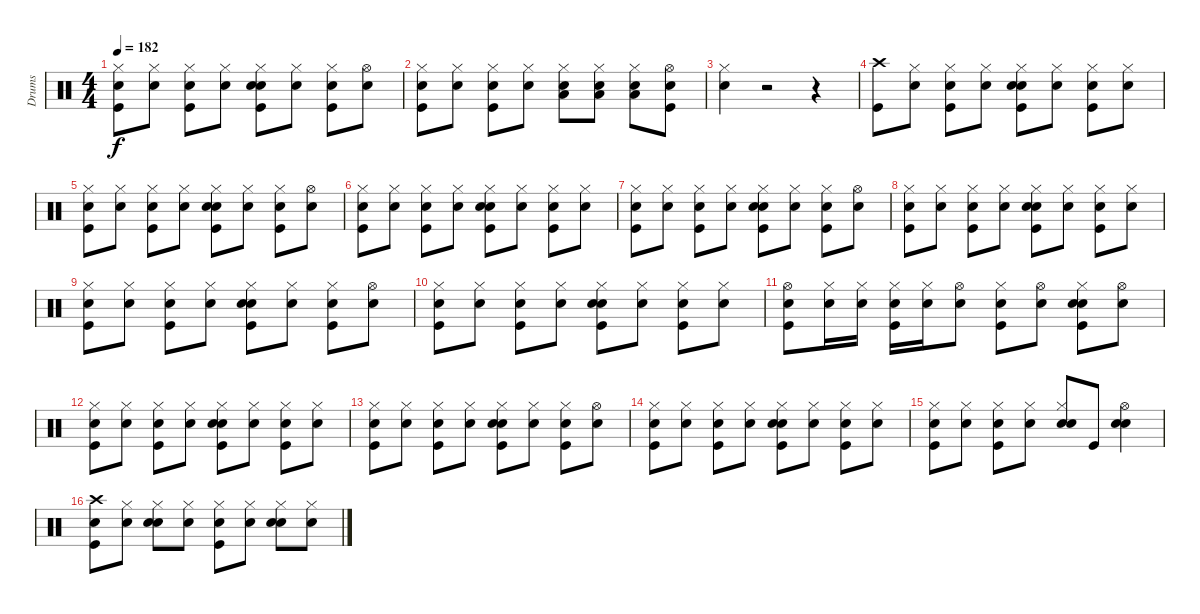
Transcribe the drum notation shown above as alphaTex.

\track ("Drums" "Drums") {instrument percussion}
\staff {score}
\articulation defaults
\ts (4 4)
\tempo 182
\clef neutral
\ks c
("Snare (hit)" "Kick (hit)" "Hi-Hat (closed)").8{dy f} ("Snare (hit)" "Hi-Hat (closed)").8 ("Snare (hit)" "Kick (hit)" "Hi-Hat (closed)").8 ("Snare (hit)" "Hi-Hat (closed)").8 ("Snare (hit)" "Kick (hit)" "Electric Snare (hit)" "Hi-Hat (closed)").8 ("Snare (hit)" "Hi-Hat (closed)").8 ("Snare (hit)" "Kick (hit)" "Hi-Hat (closed)").8 ("Snare (hit)" "Hi-Hat (open)").8 |
("Snare (hit)" "Kick (hit)" "Hi-Hat (closed)").8 ("Snare (hit)" "Hi-Hat (closed)").8 ("Snare (hit)" "Kick (hit)" "Hi-Hat (closed)").8 ("Snare (hit)" "Hi-Hat (closed)").8 ("Snare (hit)" "Hi-Hat (closed)" "Low Tom (hit)").8 ("Snare (hit)" "Hi-Hat (closed)" "Low Tom (hit)").8 ("Snare (hit)" "Hi-Hat (closed)" "Low Tom (hit)").8 ("Snare (hit)" "Kick (hit)" "Hi-Hat (open)").8 |
("Snare (hit)" "Hi-Hat (closed)").4 r.2 r.4 |
("Kick (hit)" "Crash high (hit)").8 ("Snare (hit)" "Hi-Hat (closed)").8 ("Snare (hit)" "Kick (hit)" "Hi-Hat (closed)").8 ("Snare (hit)" "Hi-Hat (closed)").8 ("Snare (hit)" "Kick (hit)" "Electric Snare (hit)" "Hi-Hat (closed)").8 ("Snare (hit)" "Hi-Hat (closed)").8 ("Snare (hit)" "Kick (hit)" "Hi-Hat (closed)").8 ("Snare (hit)" "Hi-Hat (closed)").8 |
("Snare (hit)" "Kick (hit)" "Hi-Hat (closed)").8 ("Snare (hit)" "Hi-Hat (closed)").8 ("Snare (hit)" "Kick (hit)" "Hi-Hat (closed)").8 ("Snare (hit)" "Hi-Hat (closed)").8 ("Snare (hit)" "Kick (hit)" "Electric Snare (hit)" "Hi-Hat (closed)").8 ("Snare (hit)" "Hi-Hat (closed)").8 ("Snare (hit)" "Kick (hit)" "Hi-Hat (closed)").8 ("Snare (hit)" "Hi-Hat (open)").8 |
("Snare (hit)" "Kick (hit)" "Hi-Hat (closed)").8 ("Snare (hit)" "Hi-Hat (closed)").8 ("Snare (hit)" "Kick (hit)" "Hi-Hat (closed)").8 ("Snare (hit)" "Hi-Hat (closed)").8 ("Snare (hit)" "Kick (hit)" "Electric Snare (hit)" "Hi-Hat (closed)").8 ("Snare (hit)" "Hi-Hat (closed)").8 ("Snare (hit)" "Kick (hit)" "Hi-Hat (closed)").8 ("Snare (hit)" "Hi-Hat (closed)").8 |
("Snare (hit)" "Kick (hit)" "Hi-Hat (closed)").8 ("Snare (hit)" "Hi-Hat (closed)").8 ("Snare (hit)" "Kick (hit)" "Hi-Hat (closed)").8 ("Snare (hit)" "Hi-Hat (closed)").8 ("Snare (hit)" "Kick (hit)" "Electric Snare (hit)" "Hi-Hat (closed)").8 ("Snare (hit)" "Hi-Hat (closed)").8 ("Snare (hit)" "Kick (hit)" "Hi-Hat (closed)").8 ("Snare (hit)" "Hi-Hat (open)").8 |
("Snare (hit)" "Kick (hit)" "Hi-Hat (closed)").8 ("Snare (hit)" "Hi-Hat (closed)").8 ("Snare (hit)" "Kick (hit)" "Hi-Hat (closed)").8 ("Snare (hit)" "Hi-Hat (closed)").8 ("Snare (hit)" "Kick (hit)" "Electric Snare (hit)" "Hi-Hat (closed)").8 ("Snare (hit)" "Hi-Hat (closed)").8 ("Snare (hit)" "Kick (hit)" "Hi-Hat (closed)").8 ("Snare (hit)" "Hi-Hat (closed)").8 |
("Snare (hit)" "Kick (hit)" "Hi-Hat (closed)").8 ("Snare (hit)" "Hi-Hat (closed)").8 ("Snare (hit)" "Kick (hit)" "Hi-Hat (closed)").8 ("Snare (hit)" "Hi-Hat (closed)").8 ("Snare (hit)" "Kick (hit)" "Electric Snare (hit)" "Hi-Hat (closed)").8 ("Snare (hit)" "Hi-Hat (closed)").8 ("Snare (hit)" "Kick (hit)" "Hi-Hat (closed)").8 ("Snare (hit)" "Hi-Hat (open)").8 |
("Snare (hit)" "Kick (hit)" "Hi-Hat (closed)").8 ("Snare (hit)" "Hi-Hat (closed)").8 ("Snare (hit)" "Kick (hit)" "Hi-Hat (closed)").8 ("Snare (hit)" "Hi-Hat (closed)").8 ("Snare (hit)" "Kick (hit)" "Electric Snare (hit)" "Hi-Hat (closed)").8 ("Snare (hit)" "Hi-Hat (closed)").8 ("Snare (hit)" "Kick (hit)" "Hi-Hat (closed)").8 ("Snare (hit)" "Hi-Hat (closed)").8 |
("Snare (hit)" "Kick (hit)" "Hi-Hat (open)").8 ("Snare (hit)" "Hi-Hat (closed)").16 ("Snare (hit)" "Hi-Hat (closed)").16 ("Snare (hit)" "Kick (hit)" "Hi-Hat (closed)").16 ("Snare (hit)" "Hi-Hat (closed)").16 ("Snare (hit)" "Hi-Hat (open)").8 ("Snare (hit)" "Kick (hit)" "Hi-Hat (closed)").8 ("Snare (hit)" "Hi-Hat (open)").8 ("Snare (hit)" "Kick (hit)" "Electric Snare (hit)" "Hi-Hat (closed)").8 ("Snare (hit)" "Hi-Hat (open)").8 |
("Snare (hit)" "Kick (hit)" "Hi-Hat (closed)").8 ("Snare (hit)" "Hi-Hat (closed)").8 ("Snare (hit)" "Kick (hit)" "Hi-Hat (closed)").8 ("Snare (hit)" "Hi-Hat (closed)").8 ("Snare (hit)" "Kick (hit)" "Electric Snare (hit)" "Hi-Hat (closed)").8 ("Snare (hit)" "Hi-Hat (closed)").8 ("Snare (hit)" "Kick (hit)" "Hi-Hat (closed)").8 ("Snare (hit)" "Hi-Hat (closed)").8 |
("Snare (hit)" "Kick (hit)" "Hi-Hat (closed)").8 ("Snare (hit)" "Hi-Hat (closed)").8 ("Snare (hit)" "Kick (hit)" "Hi-Hat (closed)").8 ("Snare (hit)" "Hi-Hat (closed)").8 ("Snare (hit)" "Kick (hit)" "Electric Snare (hit)" "Hi-Hat (closed)").8 ("Snare (hit)" "Hi-Hat (closed)").8 ("Snare (hit)" "Kick (hit)" "Hi-Hat (closed)").8 ("Snare (hit)" "Hi-Hat (open)").8 |
("Snare (hit)" "Kick (hit)" "Hi-Hat (closed)").8 ("Snare (hit)" "Hi-Hat (closed)").8 ("Snare (hit)" "Kick (hit)" "Hi-Hat (closed)").8 ("Snare (hit)" "Hi-Hat (closed)").8 ("Snare (hit)" "Kick (hit)" "Electric Snare (hit)" "Hi-Hat (closed)").8 ("Snare (hit)" "Hi-Hat (closed)").8 ("Snare (hit)" "Kick (hit)" "Hi-Hat (closed)").8 ("Snare (hit)" "Hi-Hat (closed)").8 |
("Snare (hit)" "Kick (hit)" "Hi-Hat (closed)").8 ("Snare (hit)" "Hi-Hat (closed)").8 ("Snare (hit)" "Kick (hit)" "Hi-Hat (closed)").8 ("Snare (hit)" "Hi-Hat (closed)").8 ("Snare (hit)" "Electric Snare (hit)" "Hi-Hat (closed)").8 "Kick (hit)".8 ("Snare (hit)" "Electric Snare (hit)" "Hi-Hat (open)").4 |
("Snare (hit)" "Kick (hit)" "Crash high (hit)").8 ("Snare (hit)" "Hi-Hat (closed)").8 ("Snare (hit)" "Electric Snare (hit)" "Hi-Hat (closed)").8 ("Snare (hit)" "Hi-Hat (closed)").8 ("Snare (hit)" "Kick (hit)" "Hi-Hat (closed)").8 ("Snare (hit)" "Hi-Hat (closed)").8 ("Snare (hit)" "Electric Snare (hit)" "Hi-Hat (closed)").8 ("Snare (hit)" "Hi-Hat (closed)").8
